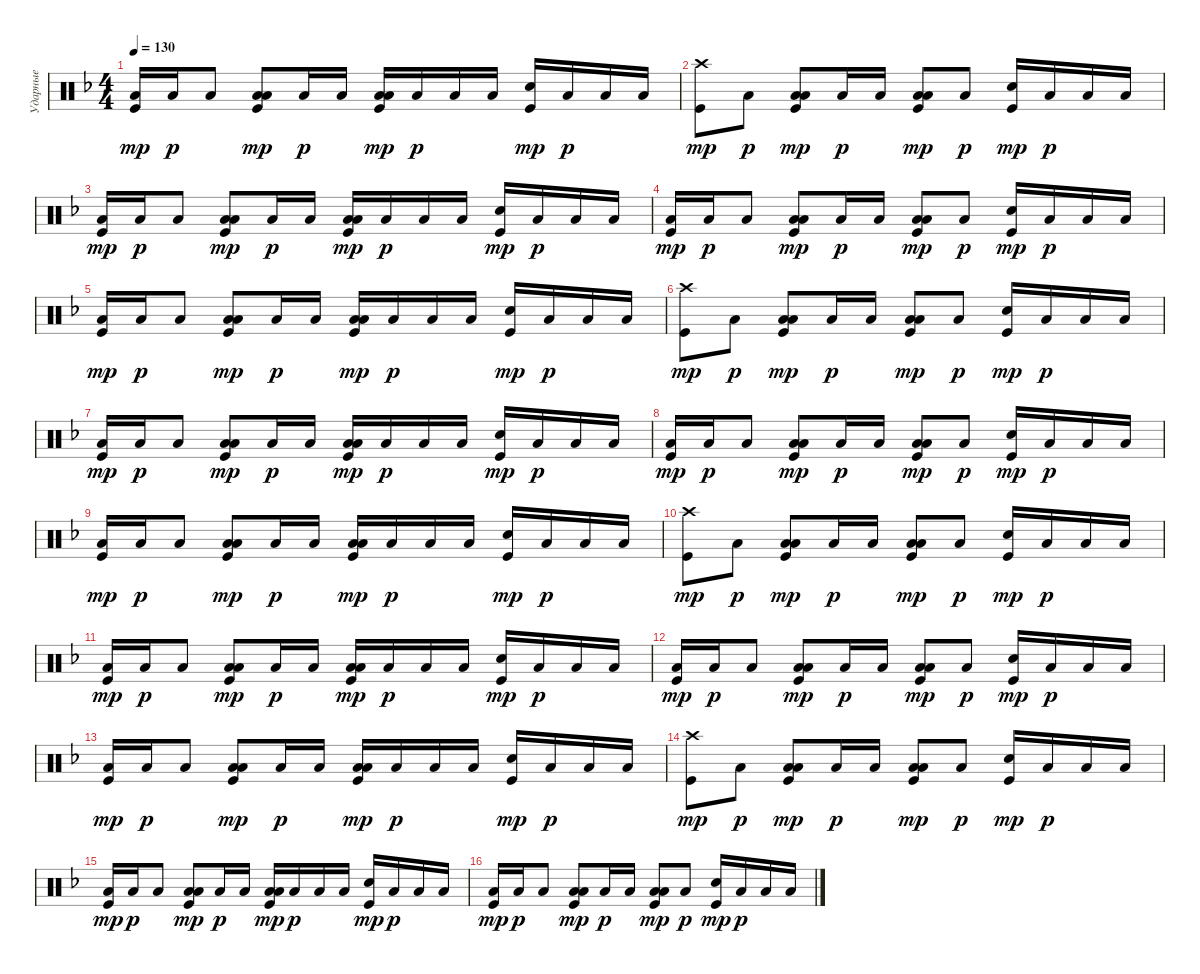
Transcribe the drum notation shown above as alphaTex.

\track ("Ударные" "Ударные") {instrument percussion}
\staff {score}
\articulation defaults
\ts (4 4)
\tempo 130
\clef neutral
\ks dminor
("Low Tom (hit)" "Kick (hit)").16{dy mp} "Low Tom (hit)".16{dy p} "Low Tom (hit)".8{bd 240} ("Low Tom (hit)" "Kick (hit)" "Low Tom (hit)").8{bd 240 dy mp} "Low Tom (hit)".16{dy p} "Low Tom (hit)".16 ("Low Tom (hit)" "Kick (hit)" "Low Tom (hit)").16{bd 240 dy mp} "Low Tom (hit)".16{dy p} "Low Tom (hit)".16 "Low Tom (hit)".16 ("Kick (hit)" "Snare (hit) 2").16{dy mp} "Low Tom (hit)".16{dy p} "Low Tom (hit)".16 "Low Tom (hit)".16 |
("Kick (hit)" "Crash high (hit)").8{dy mp} "Low Tom (hit)".8{dy p} ("Low Tom (hit)" "Kick (hit)" "Low Tom (hit)").8{bd 240 dy mp} "Low Tom (hit)".16{dy p} "Low Tom (hit)".16 ("Low Tom (hit)" "Kick (hit)" "Low Tom (hit)").8{bd 240 dy mp} "Low Tom (hit)".8{dy p} ("Kick (hit)" "Snare (hit) 2").16{dy mp} "Low Tom (hit)".16{dy p} "Low Tom (hit)".16 "Low Tom (hit)".16 |
("Low Tom (hit)" "Kick (hit)").16{dy mp} "Low Tom (hit)".16{dy p} "Low Tom (hit)".8{bd 240} ("Low Tom (hit)" "Kick (hit)" "Low Tom (hit)").8{bd 240 dy mp} "Low Tom (hit)".16{dy p} "Low Tom (hit)".16 ("Low Tom (hit)" "Kick (hit)" "Low Tom (hit)").16{bd 240 dy mp} "Low Tom (hit)".16{dy p} "Low Tom (hit)".16 "Low Tom (hit)".16 ("Kick (hit)" "Snare (hit) 2").16{dy mp} "Low Tom (hit)".16{dy p} "Low Tom (hit)".16 "Low Tom (hit)".16 |
("Low Tom (hit)" "Kick (hit)").16{dy mp} "Low Tom (hit)".16{dy p} "Low Tom (hit)".8{bd 240} ("Low Tom (hit)" "Kick (hit)" "Low Tom (hit)").8{bd 240 dy mp} "Low Tom (hit)".16{dy p} "Low Tom (hit)".16 ("Low Tom (hit)" "Kick (hit)" "Low Tom (hit)").8{bd 240 dy mp} "Low Tom (hit)".8{dy p} ("Kick (hit)" "Snare (hit) 2").16{dy mp} "Low Tom (hit)".16{dy p} "Low Tom (hit)".16 "Low Tom (hit)".16 |
("Low Tom (hit)" "Kick (hit)").16{dy mp} "Low Tom (hit)".16{dy p} "Low Tom (hit)".8{bd 240} ("Low Tom (hit)" "Kick (hit)" "Low Tom (hit)").8{bd 240 dy mp} "Low Tom (hit)".16{dy p} "Low Tom (hit)".16 ("Low Tom (hit)" "Kick (hit)" "Low Tom (hit)").16{bd 240 dy mp} "Low Tom (hit)".16{dy p} "Low Tom (hit)".16 "Low Tom (hit)".16 ("Kick (hit)" "Snare (hit) 2").16{dy mp} "Low Tom (hit)".16{dy p} "Low Tom (hit)".16 "Low Tom (hit)".16 |
("Kick (hit)" "Crash high (hit)").8{dy mp} "Low Tom (hit)".8{dy p} ("Low Tom (hit)" "Kick (hit)" "Low Tom (hit)").8{bd 240 dy mp} "Low Tom (hit)".16{dy p} "Low Tom (hit)".16 ("Low Tom (hit)" "Kick (hit)" "Low Tom (hit)").8{bd 240 dy mp} "Low Tom (hit)".8{dy p} ("Kick (hit)" "Snare (hit) 2").16{dy mp} "Low Tom (hit)".16{dy p} "Low Tom (hit)".16 "Low Tom (hit)".16 |
("Low Tom (hit)" "Kick (hit)").16{dy mp} "Low Tom (hit)".16{dy p} "Low Tom (hit)".8{bd 240} ("Low Tom (hit)" "Kick (hit)" "Low Tom (hit)").8{bd 240 dy mp} "Low Tom (hit)".16{dy p} "Low Tom (hit)".16 ("Low Tom (hit)" "Kick (hit)" "Low Tom (hit)").16{bd 240 dy mp} "Low Tom (hit)".16{dy p} "Low Tom (hit)".16 "Low Tom (hit)".16 ("Kick (hit)" "Snare (hit) 2").16{dy mp} "Low Tom (hit)".16{dy p} "Low Tom (hit)".16 "Low Tom (hit)".16 |
("Low Tom (hit)" "Kick (hit)").16{dy mp} "Low Tom (hit)".16{dy p} "Low Tom (hit)".8{bd 240} ("Low Tom (hit)" "Kick (hit)" "Low Tom (hit)").8{bd 240 dy mp} "Low Tom (hit)".16{dy p} "Low Tom (hit)".16 ("Low Tom (hit)" "Kick (hit)" "Low Tom (hit)").8{bd 240 dy mp} "Low Tom (hit)".8{dy p} ("Kick (hit)" "Snare (hit) 2").16{dy mp} "Low Tom (hit)".16{dy p} "Low Tom (hit)".16 "Low Tom (hit)".16 |
("Low Tom (hit)" "Kick (hit)").16{dy mp} "Low Tom (hit)".16{dy p} "Low Tom (hit)".8{bd 240} ("Low Tom (hit)" "Kick (hit)" "Low Tom (hit)").8{bd 240 dy mp} "Low Tom (hit)".16{dy p} "Low Tom (hit)".16 ("Low Tom (hit)" "Kick (hit)" "Low Tom (hit)").16{bd 240 dy mp} "Low Tom (hit)".16{dy p} "Low Tom (hit)".16 "Low Tom (hit)".16 ("Kick (hit)" "Snare (hit) 2").16{dy mp} "Low Tom (hit)".16{dy p} "Low Tom (hit)".16 "Low Tom (hit)".16 |
("Kick (hit)" "Crash high (hit)").8{dy mp} "Low Tom (hit)".8{dy p} ("Low Tom (hit)" "Kick (hit)" "Low Tom (hit)").8{bd 240 dy mp} "Low Tom (hit)".16{dy p} "Low Tom (hit)".16 ("Low Tom (hit)" "Kick (hit)" "Low Tom (hit)").8{bd 240 dy mp} "Low Tom (hit)".8{dy p} ("Kick (hit)" "Snare (hit) 2").16{dy mp} "Low Tom (hit)".16{dy p} "Low Tom (hit)".16 "Low Tom (hit)".16 |
("Low Tom (hit)" "Kick (hit)").16{dy mp} "Low Tom (hit)".16{dy p} "Low Tom (hit)".8{bd 240} ("Low Tom (hit)" "Kick (hit)" "Low Tom (hit)").8{bd 240 dy mp} "Low Tom (hit)".16{dy p} "Low Tom (hit)".16 ("Low Tom (hit)" "Kick (hit)" "Low Tom (hit)").16{bd 240 dy mp} "Low Tom (hit)".16{dy p} "Low Tom (hit)".16 "Low Tom (hit)".16 ("Kick (hit)" "Snare (hit) 2").16{dy mp} "Low Tom (hit)".16{dy p} "Low Tom (hit)".16 "Low Tom (hit)".16 |
("Low Tom (hit)" "Kick (hit)").16{dy mp} "Low Tom (hit)".16{dy p} "Low Tom (hit)".8{bd 240} ("Low Tom (hit)" "Kick (hit)" "Low Tom (hit)").8{bd 240 dy mp} "Low Tom (hit)".16{dy p} "Low Tom (hit)".16 ("Low Tom (hit)" "Kick (hit)" "Low Tom (hit)").8{bd 240 dy mp} "Low Tom (hit)".8{dy p} ("Kick (hit)" "Snare (hit) 2").16{dy mp} "Low Tom (hit)".16{dy p} "Low Tom (hit)".16 "Low Tom (hit)".16 |
("Low Tom (hit)" "Kick (hit)").16{dy mp} "Low Tom (hit)".16{dy p} "Low Tom (hit)".8{bd 240} ("Low Tom (hit)" "Kick (hit)" "Low Tom (hit)").8{bd 240 dy mp} "Low Tom (hit)".16{dy p} "Low Tom (hit)".16 ("Low Tom (hit)" "Kick (hit)" "Low Tom (hit)").16{bd 240 dy mp} "Low Tom (hit)".16{dy p} "Low Tom (hit)".16 "Low Tom (hit)".16 ("Kick (hit)" "Snare (hit) 2").16{dy mp} "Low Tom (hit)".16{dy p} "Low Tom (hit)".16 "Low Tom (hit)".16 |
("Kick (hit)" "Crash high (hit)").8{dy mp volume 0} "Low Tom (hit)".8{dy p} ("Low Tom (hit)" "Kick (hit)" "Low Tom (hit)").8{bd 240 dy mp} "Low Tom (hit)".16{dy p} "Low Tom (hit)".16 ("Low Tom (hit)" "Kick (hit)" "Low Tom (hit)").8{bd 240 dy mp} "Low Tom (hit)".8{dy p} ("Kick (hit)" "Snare (hit) 2").16{dy mp} "Low Tom (hit)".16{dy p} "Low Tom (hit)".16 "Low Tom (hit)".16 |
("Low Tom (hit)" "Kick (hit)").16{dy mp} "Low Tom (hit)".16{dy p} "Low Tom (hit)".8{bd 240} ("Low Tom (hit)" "Kick (hit)" "Low Tom (hit)").8{bd 240 dy mp} "Low Tom (hit)".16{dy p} "Low Tom (hit)".16 ("Low Tom (hit)" "Kick (hit)" "Low Tom (hit)").16{bd 240 dy mp} "Low Tom (hit)".16{dy p} "Low Tom (hit)".16 "Low Tom (hit)".16 ("Kick (hit)" "Snare (hit) 2").16{dy mp} "Low Tom (hit)".16{dy p} "Low Tom (hit)".16 "Low Tom (hit)".16 |
("Low Tom (hit)" "Kick (hit)").16{dy mp} "Low Tom (hit)".16{dy p} "Low Tom (hit)".8{bd 240} ("Low Tom (hit)" "Kick (hit)" "Low Tom (hit)").8{bd 240 dy mp} "Low Tom (hit)".16{dy p} "Low Tom (hit)".16 ("Low Tom (hit)" "Kick (hit)" "Low Tom (hit)").8{bd 240 dy mp} "Low Tom (hit)".8{dy p} ("Kick (hit)" "Snare (hit) 2").16{dy mp} "Low Tom (hit)".16{dy p} "Low Tom (hit)".16 "Low Tom (hit)".16
